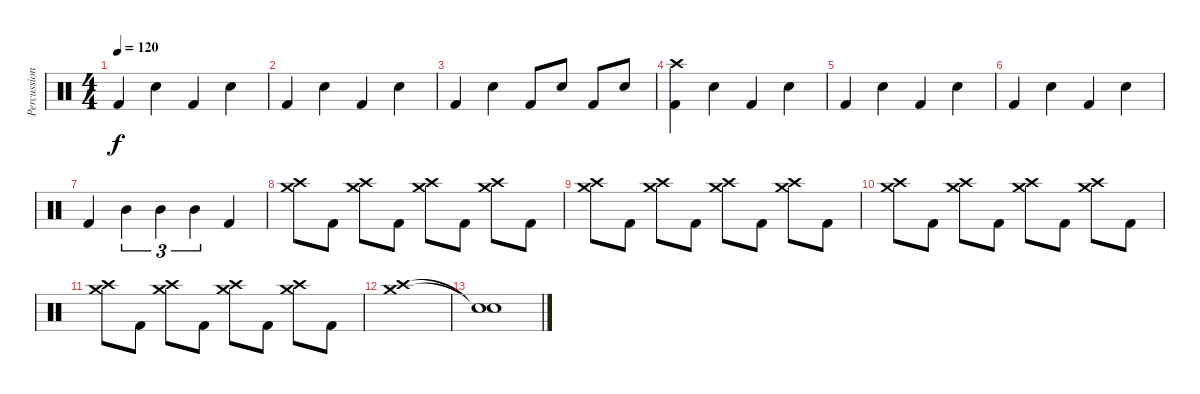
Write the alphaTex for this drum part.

\track ("Percussion" "Percussion") {instrument percussion}
\staff {score}
\articulation defaults
\ts (4 4)
\tempo 120
\clef neutral
\ks c "Kick (hit) 2".4{dy f} "Electric Snare (hit)".4 "Kick (hit) 2".4 "Electric Snare (hit)".4
|
"Kick (hit) 2".4 "Electric Snare (hit)".4 "Kick (hit) 2".4 "Electric Snare (hit)".4 |
"Kick (hit) 2".4 "Snare (hit) 2".4 "Kick (hit) 2".8 "Snare (hit) 2".8 "Kick (hit) 2".8 "Snare (hit) 2".8 |
("Crash high (hit)" "Kick (hit) 2").4 "Electric Snare (hit)".4 "Kick (hit) 2".4 "Electric Snare (hit)".4 |
"Kick (hit) 2".4 "Electric Snare (hit)".4 "Kick (hit) 2".4 "Electric Snare (hit)".4 |
"Kick (hit) 2".4 "Electric Snare (hit)".4 "Kick (hit) 2".4 "Electric Snare (hit)".4 |
"Kick (hit) 2".4 "Mid Tom (hit)".4{tu (3 2)} "Mid Tom (hit)".4{tu (3 2)} "Mid Tom (hit)".4{tu (3 2)} "Kick (hit) 2".4 |
("Crash medium (hit)" "Crash high (hit)").8 "Kick (hit) 2".8 ("Crash medium (hit)" "Crash high (hit)").8 "Kick (hit) 2".8 ("Crash medium (hit)" "Crash high (hit)").8 "Kick (hit) 2".8 ("Crash medium (hit)" "Crash high (hit)").8 "Kick (hit) 2".8 |
("Crash medium (hit)" "Crash high (hit)").8 "Kick (hit) 2".8 ("Crash medium (hit)" "Crash high (hit)").8 "Kick (hit) 2".8 ("Crash medium (hit)" "Crash high (hit)").8 "Kick (hit) 2".8 ("Crash medium (hit)" "Crash high (hit)").8 "Kick (hit) 2".8 |
("Crash medium (hit)" "Crash high (hit)").8 "Kick (hit) 2".8 ("Crash medium (hit)" "Crash high (hit)").8 "Kick (hit) 2".8 ("Crash medium (hit)" "Crash high (hit)").8 "Kick (hit) 2".8 ("Crash medium (hit)" "Crash high (hit)").8 "Kick (hit) 2".8 |
("Crash medium (hit)" "Crash high (hit)").8 "Kick (hit) 2".8 ("Crash medium (hit)" "Crash high (hit)").8 "Kick (hit) 2".8 ("Crash medium (hit)" "Crash high (hit)").8 "Kick (hit) 2".8 ("Crash medium (hit)" "Crash high (hit)").8 "Kick (hit) 2".8 |
("Crash medium (hit)" "Crash high (hit)").1 |
("Snare (hit)"{t} "Snare (hit)"{t}).1
